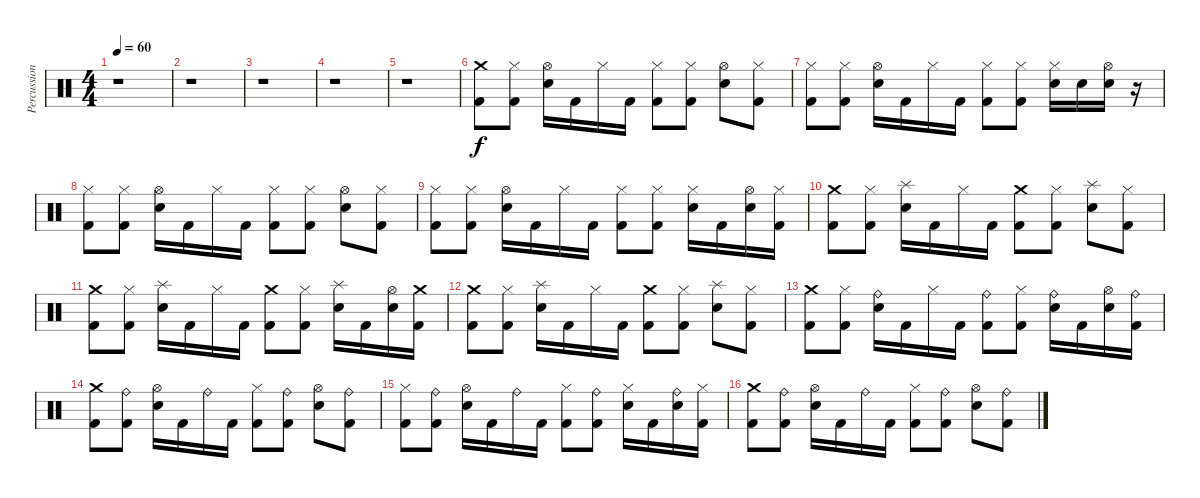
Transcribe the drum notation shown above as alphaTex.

\track ("Percussions" "Percussion") {instrument percussion}
\staff {score}
\articulation defaults
\ts (4 4)
\tempo 60
\clef neutral
\ks c
r.1{dy f} |
r.1 |
r.1 |
r.1 |
r.1 |
("Crash medium (hit)" "Kick (hit) 2").8 ("Hi-Hat (closed)" "Kick (hit) 2").8 ("Hi-Hat (open)" "Electric Snare (hit)").16 "Kick (hit) 2".16 "Hi-Hat (closed)".16 "Kick (hit) 2".16 ("Hi-Hat (closed)" "Kick (hit) 2").8 ("Hi-Hat (closed)" "Kick (hit) 2").8 ("Hi-Hat (open)" "Electric Snare (hit)").8 ("Hi-Hat (closed)" "Kick (hit) 2").8 |
("Hi-Hat (closed)" "Kick (hit) 2").8 ("Hi-Hat (closed)" "Kick (hit) 2").8 ("Hi-Hat (open)" "Electric Snare (hit)").16 "Kick (hit) 2".16 "Hi-Hat (closed)".16 "Kick (hit) 2".16 ("Hi-Hat (closed)" "Kick (hit) 2").8 ("Hi-Hat (closed)" "Kick (hit) 2").8 ("Hi-Hat (closed)" "Electric Snare (hit)").16 "Electric Snare (hit)".16 ("Hi-Hat (open)" "Electric Snare (hit)").16 r.16 |
("Hi-Hat (closed)" "Kick (hit) 2").8 ("Hi-Hat (closed)" "Kick (hit) 2").8 ("Hi-Hat (open)" "Electric Snare (hit)").16 "Kick (hit) 2".16 "Hi-Hat (closed)".16 "Kick (hit) 2".16 ("Hi-Hat (closed)" "Kick (hit) 2").8 ("Hi-Hat (closed)" "Kick (hit) 2").8 ("Hi-Hat (open)" "Electric Snare (hit)").8 ("Hi-Hat (closed)" "Kick (hit) 2").8 |
("Hi-Hat (closed)" "Kick (hit) 2").8 ("Hi-Hat (closed)" "Kick (hit) 2").8 ("Hi-Hat (open)" "Electric Snare (hit)").16 "Kick (hit) 2".16 "Hi-Hat (closed)".16 "Kick (hit) 2".16 ("Hi-Hat (closed)" "Kick (hit) 2").8 ("Hi-Hat (closed)" "Kick (hit) 2").8 ("Hi-Hat (closed)" "Electric Snare (hit)").16 "Kick (hit) 2".16 ("Hi-Hat (open)" "Electric Snare (hit)").16 ("Hi-Hat (closed)" "Kick (hit) 2").16 |
("Crash medium (hit)" "Kick (hit) 2").8 ("Hi-Hat (closed)" "Kick (hit) 2").8 ("Splash (hit)" "Electric Snare (hit)").16 "Kick (hit) 2".16 "Hi-Hat (closed)".16 "Kick (hit) 2".16 ("Crash medium (hit)" "Kick (hit) 2").8 ("Hi-Hat (closed)" "Kick (hit) 2").8 ("Splash (hit)" "Electric Snare (hit)").8 ("Hi-Hat (closed)" "Kick (hit) 2").8 |
("Crash medium (hit)" "Kick (hit) 2").8 ("Hi-Hat (closed)" "Kick (hit) 2").8 ("Splash (hit)" "Electric Snare (hit)").16 "Kick (hit) 2".16 "Hi-Hat (closed)".16 "Kick (hit) 2".16 ("Crash medium (hit)" "Kick (hit) 2").8 ("Hi-Hat (closed)" "Kick (hit) 2").8 ("Splash (hit)" "Electric Snare (hit)").16 "Kick (hit) 2".16 ("Hi-Hat (open)" "Electric Snare (hit)").16 ("Crash medium (hit)" "Kick (hit) 2").16 |
("Crash medium (hit)" "Kick (hit) 2").8 ("Hi-Hat (closed)" "Kick (hit) 2").8 ("Splash (hit)" "Electric Snare (hit)").16 "Kick (hit) 2".16 "Hi-Hat (closed)".16 "Kick (hit) 2".16 ("Crash medium (hit)" "Kick (hit) 2").8 ("Hi-Hat (closed)" "Kick (hit) 2").8 ("Splash (hit)" "Electric Snare (hit)").8 ("Hi-Hat (closed)" "Kick (hit) 2").8 |
("Crash medium (hit)" "Kick (hit) 2").8 ("Hi-Hat (closed)" "Kick (hit) 2").8 ("Ride (bell)" "Electric Snare (hit)").16 "Kick (hit) 2".16 "Hi-Hat (closed)".16 "Kick (hit) 2".16 ("Ride (bell)" "Kick (hit) 2").8 ("Hi-Hat (closed)" "Kick (hit) 2").8 ("Ride (bell)" "Electric Snare (hit)").16 "Kick (hit) 2".16 ("Hi-Hat (open)" "Electric Snare (hit)").16 ("Ride (bell)" "Kick (hit) 2").16 |
("Crash medium (hit)" "Kick (hit) 2").8{volume 0} ("Ride (bell)" "Kick (hit) 2").8 ("Hi-Hat (open)" "Electric Snare (hit)").16 "Kick (hit) 2".16 "Ride (bell)".16 "Kick (hit) 2".16 ("Hi-Hat (closed)" "Kick (hit) 2").8 ("Ride (bell)" "Kick (hit) 2").8 ("Hi-Hat (open)" "Electric Snare (hit)").8 ("Ride (bell)" "Kick (hit) 2").8 |
("Hi-Hat (closed)" "Kick (hit) 2").8 ("Ride (bell)" "Kick (hit) 2").8 ("Hi-Hat (open)" "Electric Snare (hit)").16 "Kick (hit) 2".16 "Ride (bell)".16 "Kick (hit) 2".16 ("Hi-Hat (closed)" "Kick (hit) 2").8 ("Ride (bell)" "Kick (hit) 2").8 ("Hi-Hat (closed)" "Electric Snare (hit)").16 "Kick (hit) 2".16 ("Ride (bell)" "Electric Snare (hit)").16 ("Hi-Hat (closed)" "Kick (hit) 2").16 |
("Crash medium (hit)" "Kick (hit) 2").8 ("Ride (bell)" "Kick (hit) 2").8 ("Hi-Hat (open)" "Electric Snare (hit)").16 "Kick (hit) 2".16 "Ride (bell)".16 "Kick (hit) 2".16 ("Hi-Hat (closed)" "Kick (hit) 2").8 ("Ride (bell)" "Kick (hit) 2").8 ("Hi-Hat (open)" "Electric Snare (hit)").8 ("Ride (bell)" "Kick (hit) 2").8
